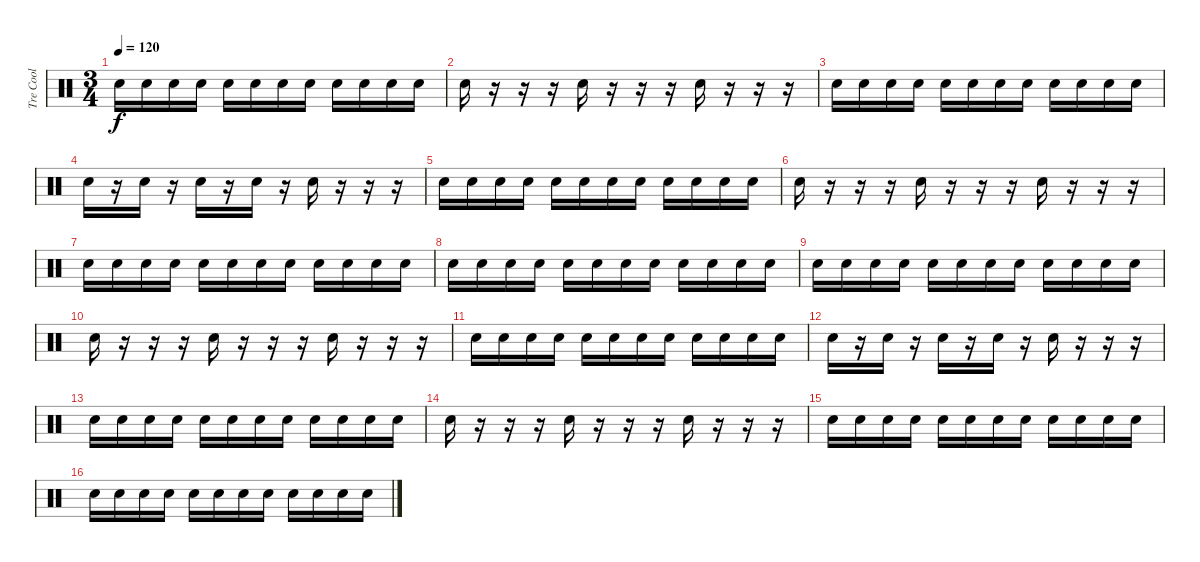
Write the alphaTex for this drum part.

\track ("Tre Cool" "Tre Cool") {instrument percussion}
\staff {score}
\articulation defaults
\ts (3 4)
\tempo 120
\clef neutral
\ks c "Snare (hit) 2".16{dy f} "Snare (hit) 2".16 "Snare (hit) 2".16 "Snare (hit) 2".16 "Snare (hit) 2".16 "Snare (hit) 2".16 "Snare (hit) 2".16 "Snare (hit) 2".16 "Snare (hit) 2".16 "Snare (hit) 2".16 "Snare (hit) 2".16 "Snare (hit) 2".16
|
"Snare (hit) 2".16 r.16 r.16 r.16 "Snare (hit) 2".16 r.16 r.16 r.16 "Snare (hit) 2".16 r.16 r.16 r.16 |
"Snare (hit) 2".16 "Snare (hit) 2".16 "Snare (hit) 2".16 "Snare (hit) 2".16 "Snare (hit) 2".16 "Snare (hit) 2".16 "Snare (hit) 2".16 "Snare (hit) 2".16 "Snare (hit) 2".16 "Snare (hit) 2".16 "Snare (hit) 2".16 "Snare (hit) 2".16 |
"Snare (hit) 2".16 r.16 "Snare (hit) 2".16 r.16 "Snare (hit) 2".16 r.16 "Snare (hit) 2".16 r.16 "Snare (hit) 2".16 r.16 r.16 r.16 |
"Snare (hit) 2".16 "Snare (hit) 2".16 "Snare (hit) 2".16 "Snare (hit) 2".16 "Snare (hit) 2".16 "Snare (hit) 2".16 "Snare (hit) 2".16 "Snare (hit) 2".16 "Snare (hit) 2".16 "Snare (hit) 2".16 "Snare (hit) 2".16 "Snare (hit) 2".16 |
"Snare (hit) 2".16 r.16 r.16 r.16 "Snare (hit) 2".16 r.16 r.16 r.16 "Snare (hit) 2".16 r.16 r.16 r.16 |
"Snare (hit) 2".16 "Snare (hit) 2".16 "Snare (hit) 2".16 "Snare (hit) 2".16 "Snare (hit) 2".16 "Snare (hit) 2".16 "Snare (hit) 2".16 "Snare (hit) 2".16 "Snare (hit) 2".16 "Snare (hit) 2".16 "Snare (hit) 2".16 "Snare (hit) 2".16 |
"Snare (hit) 2".16 "Snare (hit) 2".16 "Snare (hit) 2".16 "Snare (hit) 2".16 "Snare (hit) 2".16 "Snare (hit) 2".16 "Snare (hit) 2".16 "Snare (hit) 2".16 "Snare (hit) 2".16 "Snare (hit) 2".16 "Snare (hit) 2".16 "Snare (hit) 2".16 |
"Snare (hit) 2".16 "Snare (hit) 2".16 "Snare (hit) 2".16 "Snare (hit) 2".16 "Snare (hit) 2".16 "Snare (hit) 2".16 "Snare (hit) 2".16 "Snare (hit) 2".16 "Snare (hit) 2".16 "Snare (hit) 2".16 "Snare (hit) 2".16 "Snare (hit) 2".16 |
"Snare (hit) 2".16 r.16 r.16 r.16 "Snare (hit) 2".16 r.16 r.16 r.16 "Snare (hit) 2".16 r.16 r.16 r.16 |
"Snare (hit) 2".16 "Snare (hit) 2".16 "Snare (hit) 2".16 "Snare (hit) 2".16 "Snare (hit) 2".16 "Snare (hit) 2".16 "Snare (hit) 2".16 "Snare (hit) 2".16 "Snare (hit) 2".16 "Snare (hit) 2".16 "Snare (hit) 2".16 "Snare (hit) 2".16 |
"Snare (hit) 2".16 r.16 "Snare (hit) 2".16 r.16 "Snare (hit) 2".16 r.16 "Snare (hit) 2".16 r.16 "Snare (hit) 2".16 r.16 r.16 r.16 |
"Snare (hit) 2".16 "Snare (hit) 2".16 "Snare (hit) 2".16 "Snare (hit) 2".16 "Snare (hit) 2".16 "Snare (hit) 2".16 "Snare (hit) 2".16 "Snare (hit) 2".16 "Snare (hit) 2".16 "Snare (hit) 2".16 "Snare (hit) 2".16 "Snare (hit) 2".16 |
"Snare (hit) 2".16 r.16 r.16 r.16 "Snare (hit) 2".16 r.16 r.16 r.16 "Snare (hit) 2".16 r.16 r.16 r.16 |
"Snare (hit) 2".16 "Snare (hit) 2".16 "Snare (hit) 2".16 "Snare (hit) 2".16 "Snare (hit) 2".16 "Snare (hit) 2".16 "Snare (hit) 2".16 "Snare (hit) 2".16 "Snare (hit) 2".16 "Snare (hit) 2".16 "Snare (hit) 2".16 "Snare (hit) 2".16 |
"Snare (hit) 2".16 "Snare (hit) 2".16 "Snare (hit) 2".16 "Snare (hit) 2".16 "Snare (hit) 2".16 "Snare (hit) 2".16 "Snare (hit) 2".16 "Snare (hit) 2".16 "Snare (hit) 2".16 "Snare (hit) 2".16 "Snare (hit) 2".16 "Snare (hit) 2".16
